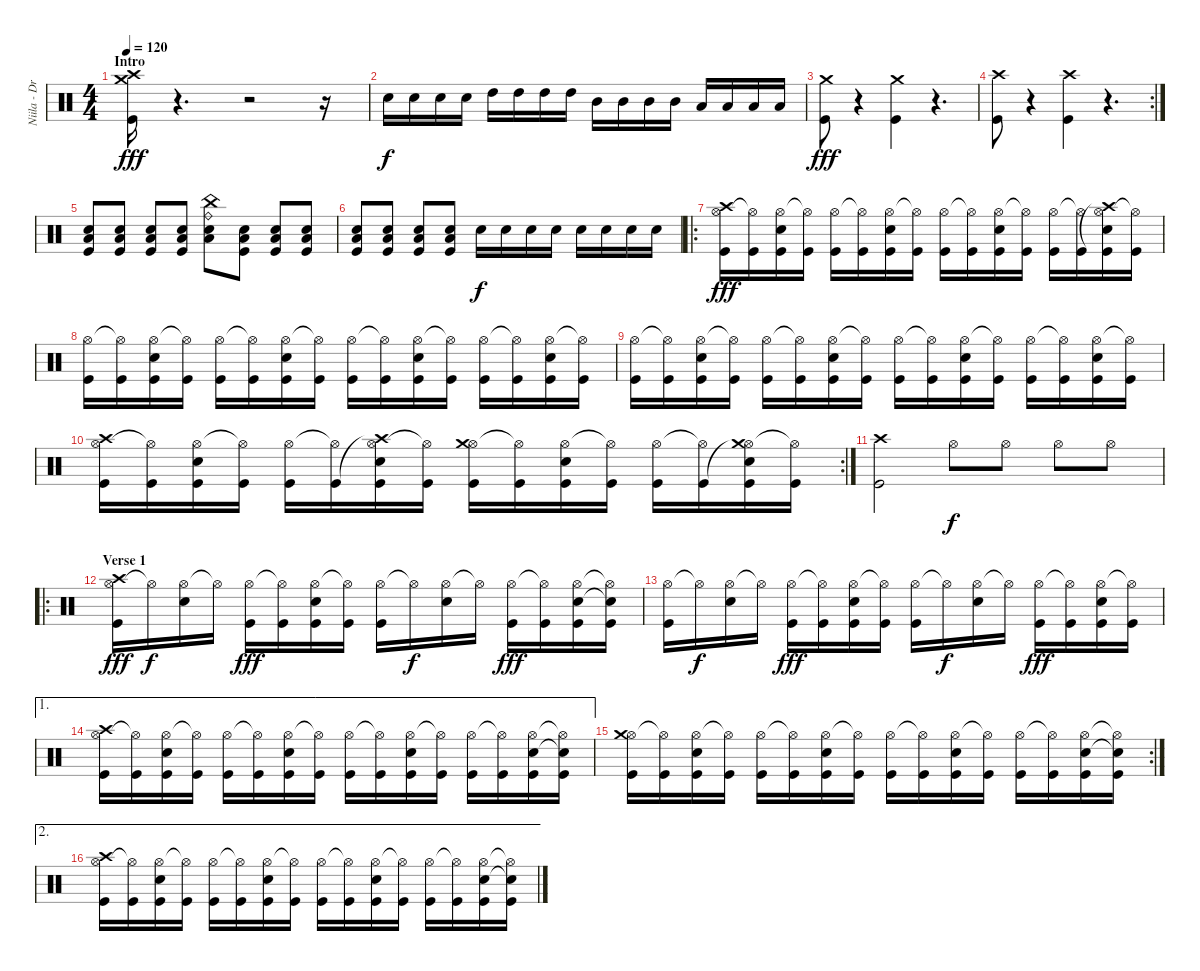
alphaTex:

\track ("Niila - Drums" "Niila - Dr") {instrument percussion}
\staff {score}
\articulation defaults
\ts (4 4)
\section ("" "Intro")
\tempo 120
\clef neutral
\ks c
("Crash high (hit)" "Crash medium (hit)" "Kick (hit)").16{dy fff} r.4{d} r.2 r.16 |
"Snare (hit) 2".16{dy f} "Snare (hit) 2".16 "Snare (hit) 2".16 "Snare (hit) 2".16 "High Tom (hit)".16 "High Tom (hit)".16 "High Tom (hit)".16 "High Tom (hit)".16 "Mid Tom (hit)".16 "Mid Tom (hit)".16 "Mid Tom (hit)".16 "Mid Tom (hit)".16 "Low Tom (hit)".16 "Low Tom (hit)".16 "Low Tom (hit)".16 "Low Tom (hit)".16 |
("Crash medium (hit)" "Kick (hit)").8{dy fff} r.4 ("Crash medium (hit)" "Kick (hit)").4 r.4{d} |
\rc 2
("Crash high (hit)" "Kick (hit)").8 r.4 ("Crash high (hit)" "Kick (hit)").4 r.4{d} |
("Snare (hit) 2" "Kick (hit)" "Low Tom (hit)").8 ("Snare (hit) 2" "Kick (hit)" "Low Tom (hit)").8 ("Snare (hit) 2" "Kick (hit)" "Low Tom (hit)").8 ("Snare (hit) 2" "Kick (hit)" "Low Tom (hit)").8 ("China (hit)" "Snare (hit) 2" "Ride (bell)" "Low Tom (hit)").8 ("Snare (hit) 2" "Kick (hit)" "Low Tom (hit)").8 ("Snare (hit) 2" "Kick (hit)" "Low Tom (hit)").8 ("Snare (hit) 2" "Kick (hit)" "Low Tom (hit)").8 |
("Snare (hit) 2" "Kick (hit)" "Low Tom (hit)").8 ("Snare (hit) 2" "Kick (hit)" "Low Tom (hit)").8 ("Snare (hit) 2" "Kick (hit)" "Low Tom (hit)").8 ("Snare (hit) 2" "Kick (hit)" "Low Tom (hit)").8 "Snare (hit) 2".16{dy f} "Snare (hit) 2".16 "Snare (hit) 2".16 "Snare (hit) 2".16 "Snare (hit) 2".16 "Snare (hit) 2".16 "Snare (hit) 2".16 "Snare (hit) 2".16 |
\ro
("Hi-Hat (open)" "Crash high (hit)" "Kick (hit)").16{dy fff} ("Hi-Hat (open)"{t} "Kick (hit)").16 ("Hi-Hat (open)" "Snare (hit) 2" "Kick (hit)").16 ("Hi-Hat (open)"{t} "Kick (hit)").16 ("Hi-Hat (open)" "Kick (hit)").16 ("Hi-Hat (open)"{t} "Kick (hit)").16 ("Hi-Hat (open)" "Snare (hit) 2" "Kick (hit)").16 ("Hi-Hat (open)"{t} "Kick (hit)").16 ("Hi-Hat (open)" "Kick (hit)").16 ("Hi-Hat (open)"{t} "Kick (hit)").16 ("Hi-Hat (open)" "Snare (hit) 2" "Kick (hit)").16 ("Hi-Hat (open)"{t} "Kick (hit)").16 ("Hi-Hat (open)" "Kick (hit)").16 ("Hi-Hat (open)"{t} "Kick (hit)").16 ("Hi-Hat (open)" "Crash high (hit)"{t} "Snare (hit) 2" "Kick (hit)").16 ("Hi-Hat (open)"{t} "Kick (hit)").16 |
("Hi-Hat (open)" "Kick (hit)").16 ("Hi-Hat (open)"{t} "Kick (hit)").16 ("Hi-Hat (open)" "Snare (hit) 2" "Kick (hit)").16 ("Hi-Hat (open)"{t} "Kick (hit)").16 ("Hi-Hat (open)" "Kick (hit)").16 ("Hi-Hat (open)"{t} "Kick (hit)").16 ("Hi-Hat (open)" "Snare (hit) 2" "Kick (hit)").16 ("Hi-Hat (open)"{t} "Kick (hit)").16 ("Hi-Hat (open)" "Kick (hit)").16 ("Hi-Hat (open)"{t} "Kick (hit)").16 ("Hi-Hat (open)" "Snare (hit) 2" "Kick (hit)").16 ("Hi-Hat (open)"{t} "Kick (hit)").16 ("Hi-Hat (open)" "Kick (hit)").16 ("Hi-Hat (open)"{t} "Kick (hit)").16 ("Hi-Hat (open)" "Snare (hit) 2" "Kick (hit)").16 ("Hi-Hat (open)"{t} "Kick (hit)").16 |
("Hi-Hat (open)" "Kick (hit)").16 ("Hi-Hat (open)"{t} "Kick (hit)").16 ("Hi-Hat (open)" "Snare (hit) 2" "Kick (hit)").16 ("Hi-Hat (open)"{t} "Kick (hit)").16 ("Hi-Hat (open)" "Kick (hit)").16 ("Hi-Hat (open)"{t} "Kick (hit)").16 ("Hi-Hat (open)" "Snare (hit) 2" "Kick (hit)").16 ("Hi-Hat (open)"{t} "Kick (hit)").16 ("Hi-Hat (open)" "Kick (hit)").16 ("Hi-Hat (open)"{t} "Kick (hit)").16 ("Hi-Hat (open)" "Snare (hit) 2" "Kick (hit)").16 ("Hi-Hat (open)"{t} "Kick (hit)").16 ("Hi-Hat (open)" "Kick (hit)").16 ("Hi-Hat (open)"{t} "Kick (hit)").16 ("Hi-Hat (open)" "Snare (hit) 2" "Kick (hit)").16 ("Hi-Hat (open)"{t} "Kick (hit)").16 |
\rc 2
("Hi-Hat (open)" "Crash high (hit)" "Kick (hit)").16 ("Hi-Hat (open)"{t} "Kick (hit)").16 ("Hi-Hat (open)" "Snare (hit) 2" "Kick (hit)").16 ("Hi-Hat (open)"{t} "Kick (hit)").16 ("Hi-Hat (open)" "Kick (hit)").16 ("Hi-Hat (open)"{t} "Kick (hit)").16 ("Hi-Hat (open)" "Crash high (hit)"{t} "Snare (hit) 2" "Kick (hit)").16 ("Hi-Hat (open)"{t} "Kick (hit)").16 ("Hi-Hat (open)" "Crash medium (hit)" "Kick (hit)").16 ("Hi-Hat (open)"{t} "Kick (hit)").16 ("Hi-Hat (open)" "Snare (hit) 2" "Kick (hit)").16 ("Hi-Hat (open)"{t} "Kick (hit)").16 ("Hi-Hat (open)" "Kick (hit)").16 ("Hi-Hat (open)"{t} "Kick (hit)").16 ("Hi-Hat (open)" "Crash medium (hit)"{t} "Snare (hit) 2" "Kick (hit)").16 ("Hi-Hat (open)"{t} "Kick (hit)").16 |
("Crash high (hit)" "Kick (hit)").2 "Hi-Hat (open)".8{dy f} "Hi-Hat (open)".8 "Hi-Hat (open)".8 "Hi-Hat (open)".8 |
\ro
\section ("" "Verse 1")
("Hi-Hat (open)" "Crash high (hit)" "Kick (hit)").16{dy fff} "Hi-Hat (open)"{t}.16{dy f} ("Hi-Hat (open)" "Snare (hit) 2").16 "Hi-Hat (open)"{t}.16 ("Hi-Hat (open)" "Kick (hit)").16{dy fff} ("Hi-Hat (open)"{t} "Kick (hit)").16 ("Hi-Hat (open)" "Snare (hit) 2" "Kick (hit)").16 ("Hi-Hat (open)"{t} "Kick (hit)").16 ("Hi-Hat (open)" "Kick (hit)").16 "Hi-Hat (open)"{t}.16{dy f} ("Hi-Hat (open)" "Snare (hit) 2").16 "Hi-Hat (open)"{t}.16 ("Hi-Hat (open)" "Kick (hit)").16{dy fff} ("Hi-Hat (open)"{t} "Kick (hit)").16 ("Hi-Hat (open)" "Snare (hit) 2" "Kick (hit)").16 ("Hi-Hat (open)"{t} "Snare (hit)"{t} "Kick (hit)").16 |
("Hi-Hat (open)" "Kick (hit)").16 "Hi-Hat (open)"{t}.16{dy f} ("Hi-Hat (open)" "Snare (hit) 2").16 "Hi-Hat (open)"{t}.16 ("Hi-Hat (open)" "Kick (hit)").16{dy fff} ("Hi-Hat (open)"{t} "Kick (hit)").16 ("Hi-Hat (open)" "Snare (hit) 2" "Kick (hit)").16 ("Hi-Hat (open)"{t} "Kick (hit)").16 ("Hi-Hat (open)" "Kick (hit)").16 "Hi-Hat (open)"{t}.16{dy f} ("Hi-Hat (open)" "Snare (hit) 2").16 "Hi-Hat (open)"{t}.16 ("Hi-Hat (open)" "Kick (hit)").16{dy fff} ("Hi-Hat (open)"{t} "Kick (hit)").16 ("Hi-Hat (open)" "Snare (hit) 2" "Kick (hit)").16 ("Hi-Hat (open)"{t} "Kick (hit)").16 |
\ae 1
("Hi-Hat (open)" "Crash high (hit)" "Kick (hit)").16 ("Hi-Hat (open)"{t} "Kick (hit)").16 ("Hi-Hat (open)" "Snare (hit) 2" "Kick (hit)").16 ("Hi-Hat (open)"{t} "Kick (hit)").16 ("Hi-Hat (open)" "Kick (hit)").16 ("Hi-Hat (open)"{t} "Kick (hit)").16 ("Hi-Hat (open)" "Snare (hit) 2" "Kick (hit)").16 ("Hi-Hat (open)"{t} "Kick (hit)").16 ("Hi-Hat (open)" "Kick (hit)").16 ("Hi-Hat (open)"{t} "Kick (hit)").16 ("Hi-Hat (open)" "Snare (hit) 2" "Kick (hit)").16 ("Hi-Hat (open)"{t} "Kick (hit)").16 ("Hi-Hat (open)" "Kick (hit)").16 ("Hi-Hat (open)"{t} "Kick (hit)").16 ("Hi-Hat (open)" "Snare (hit) 2" "Kick (hit)").16 ("Hi-Hat (open)"{t} "Snare (hit)"{t} "Kick (hit)").16 |
\rc 2
("Hi-Hat (open)" "Crash medium (hit)" "Kick (hit)").16 ("Hi-Hat (open)"{t} "Kick (hit)").16 ("Hi-Hat (open)" "Snare (hit) 2" "Kick (hit)").16 ("Hi-Hat (open)"{t} "Kick (hit)").16 ("Hi-Hat (open)" "Kick (hit)").16 ("Hi-Hat (open)"{t} "Kick (hit)").16 ("Hi-Hat (open)" "Snare (hit) 2" "Kick (hit)").16 ("Hi-Hat (open)"{t} "Kick (hit)").16 ("Hi-Hat (open)" "Kick (hit)").16 ("Hi-Hat (open)"{t} "Kick (hit)").16 ("Hi-Hat (open)" "Snare (hit) 2" "Kick (hit)").16 ("Hi-Hat (open)"{t} "Kick (hit)").16 ("Hi-Hat (open)" "Kick (hit)").16 ("Hi-Hat (open)"{t} "Kick (hit)").16 ("Hi-Hat (open)" "Snare (hit) 2" "Kick (hit)").16 ("Hi-Hat (open)"{t} "Snare (hit)"{t} "Kick (hit)").16 |
\ae 2
("Hi-Hat (open)" "Crash high (hit)" "Kick (hit)").16 ("Hi-Hat (open)"{t} "Kick (hit)").16 ("Hi-Hat (open)" "Snare (hit) 2" "Kick (hit)").16 ("Hi-Hat (open)"{t} "Kick (hit)").16 ("Hi-Hat (open)" "Kick (hit)").16 ("Hi-Hat (open)"{t} "Kick (hit)").16 ("Hi-Hat (open)" "Snare (hit) 2" "Kick (hit)").16 ("Hi-Hat (open)"{t} "Kick (hit)").16 ("Hi-Hat (open)" "Kick (hit)").16 ("Hi-Hat (open)"{t} "Kick (hit)").16 ("Hi-Hat (open)" "Snare (hit) 2" "Kick (hit)").16 ("Hi-Hat (open)"{t} "Kick (hit)").16 ("Hi-Hat (open)" "Kick (hit)").16 ("Hi-Hat (open)"{t} "Kick (hit)").16 ("Hi-Hat (open)" "Snare (hit) 2" "Kick (hit)").16 ("Hi-Hat (open)"{t} "Snare (hit)"{t} "Kick (hit)").16
